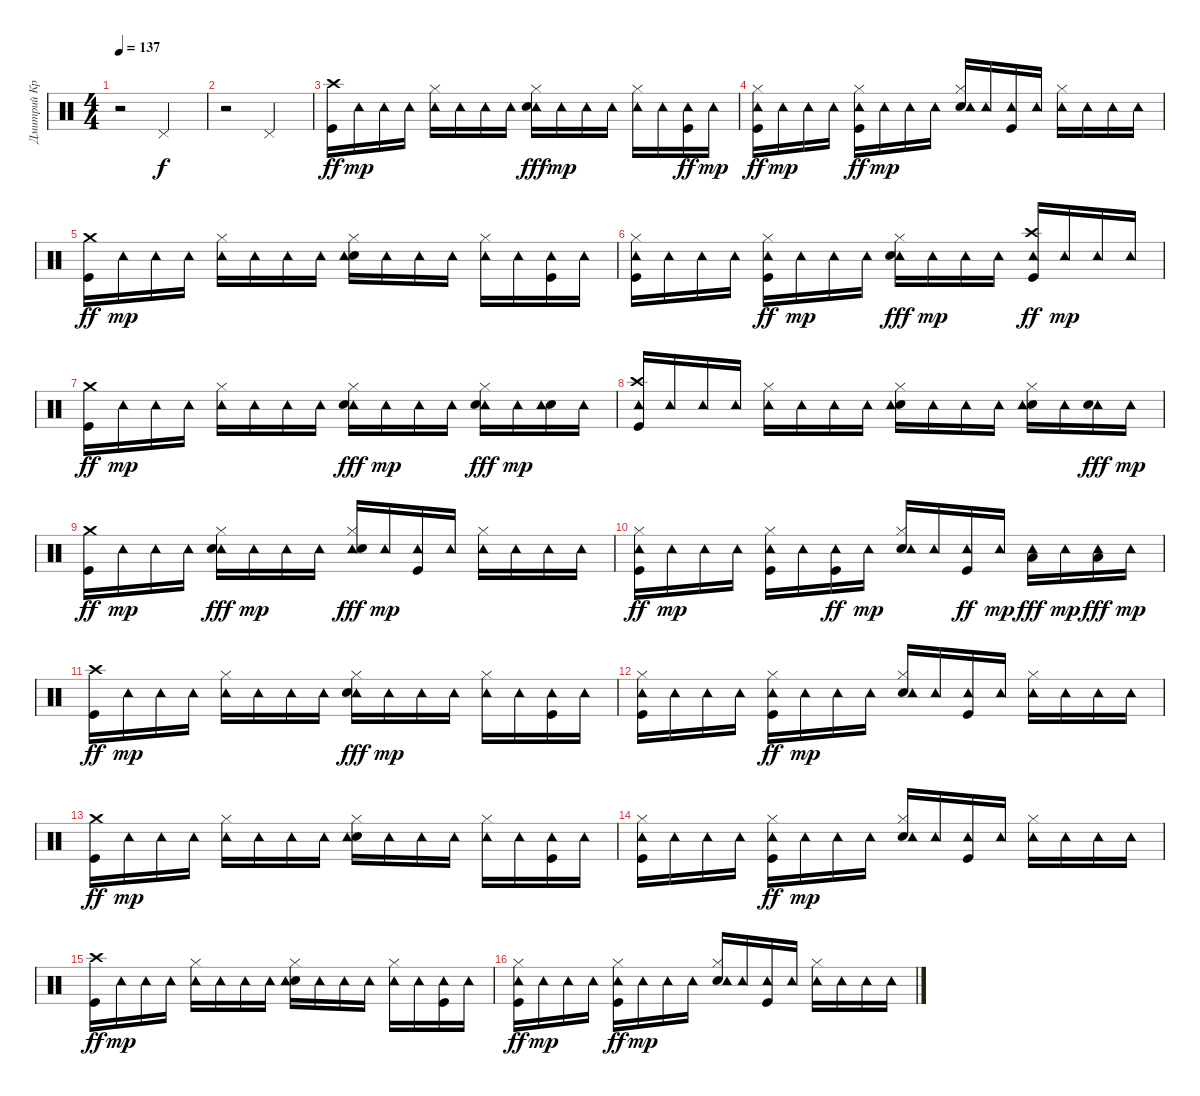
\track ("Дмитрий Кревенков" "Дмитрий Кр") {instrument percussion}
\staff {score}
\articulation defaults
\ts (4 4)
\tempo 137
\clef neutral
\ks c
r.2{dy f} "Pedal Hi-Hat (hit)".2 |
r.2 "Pedal Hi-Hat (hit)".2 |
("Kick (hit)" "Crash high (hit)").16{dy ff} "Tambourine (hit)".16{dy mp} "Tambourine (hit)".16 "Tambourine (hit)".16 ("Tambourine (hit)" "Hi-Hat (closed)").16 "Tambourine (hit)".16 "Tambourine (hit)".16 "Tambourine (hit)".16 ("Tambourine (hit)" "Snare (hit) 2" "Hi-Hat (closed)").16{dy fff} "Tambourine (hit)".16{dy mp} "Tambourine (hit)".16 "Tambourine (hit)".16 ("Tambourine (hit)" "Hi-Hat (closed)").16 "Tambourine (hit)".16 ("Tambourine (hit)" "Kick (hit)").16{dy ff} "Tambourine (hit)".16{dy mp} |
("Tambourine (hit)" "Kick (hit)" "Hi-Hat (closed)").16{dy ff} "Tambourine (hit)".16{dy mp} "Tambourine (hit)".16 "Tambourine (hit)".16 ("Tambourine (hit)" "Kick (hit)" "Hi-Hat (closed)").16{dy ff} "Tambourine (hit)".16{dy mp} "Tambourine (hit)".16 "Tambourine (hit)".16 ("Snare (hit) 2" "Tambourine (hit)" "Hi-Hat (closed)").16 "Tambourine (hit)".16 ("Kick (hit)" "Tambourine (hit)").16 "Tambourine (hit)".16 ("Tambourine (hit)" "Hi-Hat (closed)").16 "Tambourine (hit)".16 "Tambourine (hit)".16 "Tambourine (hit)".16 |
("Kick (hit)" "Crash medium (hit)").16{dy ff} "Tambourine (hit)".16{dy mp} "Tambourine (hit)".16 "Tambourine (hit)".16 ("Tambourine (hit)" "Hi-Hat (closed)").16 "Tambourine (hit)".16 "Tambourine (hit)".16 "Tambourine (hit)".16 ("Snare (hit) 2" "Tambourine (hit)" "Hi-Hat (closed)").16 "Tambourine (hit)".16 "Tambourine (hit)".16 "Tambourine (hit)".16 ("Tambourine (hit)" "Hi-Hat (closed)").16 "Tambourine (hit)".16 ("Kick (hit)" "Tambourine (hit)").16 "Tambourine (hit)".16 |
("Kick (hit)" "Tambourine (hit)" "Hi-Hat (closed)").16 "Tambourine (hit)".16 "Tambourine (hit)".16 "Tambourine (hit)".16 ("Tambourine (hit)" "Kick (hit)" "Hi-Hat (closed)").16{dy ff} "Tambourine (hit)".16{dy mp} "Tambourine (hit)".16 "Tambourine (hit)".16 ("Tambourine (hit)" "Snare (hit) 2" "Hi-Hat (closed)").16{dy fff} "Tambourine (hit)".16{dy mp} "Tambourine (hit)".16 "Tambourine (hit)".16 ("Tambourine (hit)" "Crash high (hit)" "Kick (hit)").16{dy ff} "Tambourine (hit)".16{dy mp} "Tambourine (hit)".16 "Tambourine (hit)".16 |
("Crash medium (hit)" "Kick (hit)").16{dy ff} "Tambourine (hit)".16{dy mp} "Tambourine (hit)".16 "Tambourine (hit)".16 ("Tambourine (hit)" "Hi-Hat (closed)").16 "Tambourine (hit)".16 "Tambourine (hit)".16 "Tambourine (hit)".16 ("Tambourine (hit)" "Snare (hit) 2" "Hi-Hat (closed)").16{dy fff} "Tambourine (hit)".16{dy mp} "Tambourine (hit)".16 "Tambourine (hit)".16 ("Tambourine (hit)" "Snare (hit) 2" "Hi-Hat (closed)").16{dy fff} "Tambourine (hit)".16{dy mp} ("Snare (hit) 2" "Tambourine (hit)").16 "Tambourine (hit)".16 |
("Kick (hit)" "Crash high (hit)" "Tambourine (hit)").16 "Tambourine (hit)".16 "Tambourine (hit)".16 "Tambourine (hit)".16 ("Tambourine (hit)" "Hi-Hat (closed)").16 "Tambourine (hit)".16 "Tambourine (hit)".16 "Tambourine (hit)".16 ("Snare (hit) 2" "Tambourine (hit)" "Hi-Hat (closed)").16 "Tambourine (hit)".16 "Tambourine (hit)".16 "Tambourine (hit)".16 ("Snare (hit) 2" "Tambourine (hit)" "Hi-Hat (closed)").16 "Tambourine (hit)".16 ("Tambourine (hit)" "Snare (hit) 2").16{dy fff} "Tambourine (hit)".16{dy mp} |
("Crash medium (hit)" "Kick (hit)").16{dy ff} "Tambourine (hit)".16{dy mp} "Tambourine (hit)".16 "Tambourine (hit)".16 ("Tambourine (hit)" "Snare (hit) 2" "Hi-Hat (closed)").16{dy fff} "Tambourine (hit)".16{dy mp} "Tambourine (hit)".16 "Tambourine (hit)".16 ("Tambourine (hit)" "Snare (hit) 2" "Hi-Hat (closed)").16{dy fff} "Tambourine (hit)".16{dy mp} ("Kick (hit)" "Tambourine (hit)").16 "Tambourine (hit)".16 ("Tambourine (hit)" "Hi-Hat (closed)").16 "Tambourine (hit)".16 "Tambourine (hit)".16 "Tambourine (hit)".16 |
("Tambourine (hit)" "Kick (hit)" "Hi-Hat (closed)").16{dy ff} "Tambourine (hit)".16{dy mp} "Tambourine (hit)".16 "Tambourine (hit)".16 ("Kick (hit)" "Tambourine (hit)" "Hi-Hat (closed)").16 "Tambourine (hit)".16 ("Tambourine (hit)" "Kick (hit)").16{dy ff} "Tambourine (hit)".16{dy mp} ("Snare (hit) 2" "Tambourine (hit)" "Hi-Hat (closed)").16 "Tambourine (hit)".16 ("Tambourine (hit)" "Kick (hit)").16{dy ff} "Tambourine (hit)".16{dy mp} ("Tambourine (hit)" "Low Tom (hit)").16{dy fff} "Tambourine (hit)".16{dy mp} ("Tambourine (hit)" "Low Tom (hit)").16{dy fff} "Tambourine (hit)".16{dy mp} |
("Kick (hit)" "Crash high (hit)").16{dy ff} "Tambourine (hit)".16{dy mp} "Tambourine (hit)".16 "Tambourine (hit)".16 ("Tambourine (hit)" "Hi-Hat (closed)").16 "Tambourine (hit)".16 "Tambourine (hit)".16 "Tambourine (hit)".16 ("Tambourine (hit)" "Snare (hit) 2" "Hi-Hat (closed)").16{dy fff} "Tambourine (hit)".16{dy mp} "Tambourine (hit)".16 "Tambourine (hit)".16 ("Tambourine (hit)" "Hi-Hat (closed)").16 "Tambourine (hit)".16 ("Kick (hit)" "Tambourine (hit)").16 "Tambourine (hit)".16 |
("Kick (hit)" "Tambourine (hit)" "Hi-Hat (closed)").16 "Tambourine (hit)".16 "Tambourine (hit)".16 "Tambourine (hit)".16 ("Tambourine (hit)" "Kick (hit)" "Hi-Hat (closed)").16{dy ff} "Tambourine (hit)".16{dy mp} "Tambourine (hit)".16 "Tambourine (hit)".16 ("Snare (hit) 2" "Tambourine (hit)" "Hi-Hat (closed)").16 "Tambourine (hit)".16 ("Kick (hit)" "Tambourine (hit)").16 "Tambourine (hit)".16 ("Tambourine (hit)" "Hi-Hat (closed)").16 "Tambourine (hit)".16 "Tambourine (hit)".16 "Tambourine (hit)".16 |
("Crash medium (hit)" "Kick (hit)").16{dy ff} "Tambourine (hit)".16{dy mp} "Tambourine (hit)".16 "Tambourine (hit)".16 ("Hi-Hat (closed)" "Tambourine (hit)").16 "Tambourine (hit)".16 "Tambourine (hit)".16 "Tambourine (hit)".16 ("Snare (hit) 2" "Tambourine (hit)" "Hi-Hat (closed)").16 "Tambourine (hit)".16 "Tambourine (hit)".16 "Tambourine (hit)".16 ("Tambourine (hit)" "Hi-Hat (closed)").16 "Tambourine (hit)".16 ("Kick (hit)" "Tambourine (hit)").16 "Tambourine (hit)".16 |
("Kick (hit)" "Tambourine (hit)" "Hi-Hat (closed)").16 "Tambourine (hit)".16 "Tambourine (hit)".16 "Tambourine (hit)".16 ("Tambourine (hit)" "Kick (hit)" "Hi-Hat (closed)").16{dy ff} "Tambourine (hit)".16{dy mp} "Tambourine (hit)".16 "Tambourine (hit)".16 ("Snare (hit) 2" "Tambourine (hit)" "Hi-Hat (closed)").16 "Tambourine (hit)".16 ("Kick (hit)" "Tambourine (hit)").16 "Tambourine (hit)".16 ("Tambourine (hit)" "Hi-Hat (closed)").16 "Tambourine (hit)".16 "Tambourine (hit)".16 "Tambourine (hit)".16 |
("Crash high (hit)" "Kick (hit)").16{dy ff} "Tambourine (hit)".16{dy mp} "Tambourine (hit)".16 "Tambourine (hit)".16 ("Hi-Hat (closed)" "Tambourine (hit)").16 "Tambourine (hit)".16 "Tambourine (hit)".16 "Tambourine (hit)".16 ("Snare (hit) 2" "Tambourine (hit)" "Hi-Hat (closed)").16 "Tambourine (hit)".16 "Tambourine (hit)".16 "Tambourine (hit)".16 ("Tambourine (hit)" "Hi-Hat (closed)").16 "Tambourine (hit)".16 ("Kick (hit)" "Tambourine (hit)").16 "Tambourine (hit)".16 |
("Tambourine (hit)" "Kick (hit)" "Hi-Hat (closed)").16{dy ff} "Tambourine (hit)".16{dy mp} "Tambourine (hit)".16 "Tambourine (hit)".16 ("Tambourine (hit)" "Kick (hit)" "Hi-Hat (closed)").16{dy ff} "Tambourine (hit)".16{dy mp} "Tambourine (hit)".16 "Tambourine (hit)".16 ("Snare (hit) 2" "Tambourine (hit)" "Hi-Hat (closed)").16 "Tambourine (hit)".16 ("Kick (hit)" "Tambourine (hit)").16 "Tambourine (hit)".16 ("Tambourine (hit)" "Hi-Hat (closed)").16 "Tambourine (hit)".16 "Tambourine (hit)".16 "Tambourine (hit)".16
